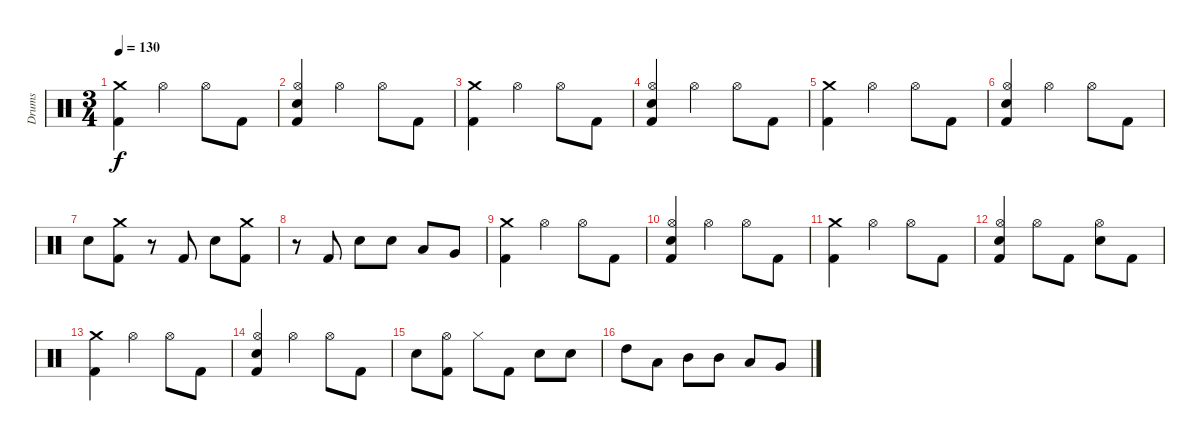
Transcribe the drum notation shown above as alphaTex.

\track ("Drums" "Drums") {instrument percussion}
\staff {score}
\articulation defaults
\ts (3 4)
\tempo 130
\clef neutral
\ks c
("Crash medium (hit)" "Kick (hit) 2").4{dy f} "Hi-Hat (open)".4 "Hi-Hat (open)".8 "Kick (hit) 2".8 |
("Hi-Hat (open)" "Electric Snare (hit)" "Kick (hit) 2").4 "Hi-Hat (open)".4 "Hi-Hat (open)".8 "Kick (hit) 2".8 |
("Crash medium (hit)" "Kick (hit) 2").4 "Hi-Hat (open)".4 "Hi-Hat (open)".8 "Kick (hit) 2".8 |
("Hi-Hat (open)" "Electric Snare (hit)" "Kick (hit) 2").4 "Hi-Hat (open)".4 "Hi-Hat (open)".8 "Kick (hit) 2".8 |
("Crash medium (hit)" "Kick (hit) 2").4 "Hi-Hat (open)".4 "Hi-Hat (open)".8 "Kick (hit) 2".8 |
("Hi-Hat (open)" "Electric Snare (hit)" "Kick (hit) 2").4 "Hi-Hat (open)".4 "Hi-Hat (open)".8 "Kick (hit) 2".8 |
"Electric Snare (hit)".8 ("Crash medium (hit)" "Kick (hit) 2").8 r.8 "Kick (hit) 2".8 "Electric Snare (hit)".8 ("Crash medium (hit)" "Kick (hit) 2").8 |
r.8 "Kick (hit) 2".8 "Electric Snare (hit)".8 "Electric Snare (hit)".8 "Low Tom (hit)".8 "Very Low Tom (hit)".8 |
("Crash medium (hit)" "Kick (hit) 2").4 "Hi-Hat (open)".4 "Hi-Hat (open)".8 "Kick (hit) 2".8 |
("Hi-Hat (open)" "Electric Snare (hit)" "Kick (hit) 2").4 "Hi-Hat (open)".4 "Hi-Hat (open)".8 "Kick (hit) 2".8 |
("Crash medium (hit)" "Kick (hit) 2").4 "Hi-Hat (open)".4 "Hi-Hat (open)".8 "Kick (hit) 2".8 |
("Hi-Hat (open)" "Electric Snare (hit)" "Kick (hit) 2").4 "Hi-Hat (open)".8 "Kick (hit) 2".8 ("Hi-Hat (open)" "Electric Snare (hit)").8 "Kick (hit) 2".8 |
("Crash medium (hit)" "Kick (hit) 2").4 "Hi-Hat (open)".4 "Hi-Hat (open)".8 "Kick (hit) 2".8 |
("Hi-Hat (open)" "Electric Snare (hit)" "Kick (hit) 2").4 "Hi-Hat (open)".4 "Hi-Hat (open)".8 "Kick (hit) 2".8 |
"Electric Snare (hit)".8 ("Hi-Hat (open)" "Kick (hit) 2").8 "Hi-Hat (closed)".8 "Kick (hit) 2".8 "Electric Snare (hit)".8 "Electric Snare (hit)".8 |
"High Tom (hit)".8 "Low Tom (hit)".8 "Mid Tom (hit)".8 "Mid Tom (hit)".8 "Low Tom (hit)".8 "Very Low Tom (hit)".8
